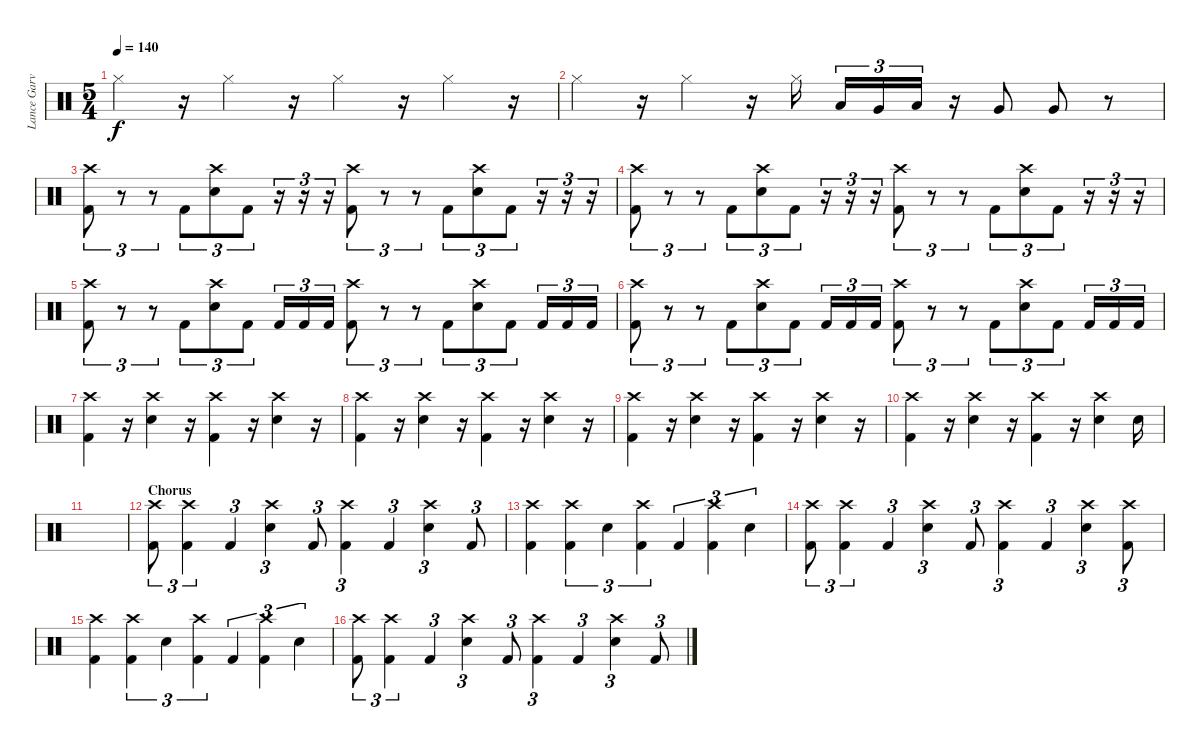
\track ("Lance Garvin - Drums" "Lance Garv") {instrument percussion}
\staff {score}
\articulation defaults
\ts (5 4)
\tempo 140
\clef neutral
\ks c "Hi-Hat (closed)".4{dy f}
r.16 "Hi-Hat (closed)".4 r.16 "Hi-Hat (closed)".4 r.16 "Hi-Hat (closed)".4 r.16 |
"Hi-Hat (closed)".4 r.16 "Hi-Hat (closed)".4 r.16 "Hi-Hat (closed)".16 "Low Floor Tom (hit)".16{tu (3 2)} "Very Low Tom (hit)".16{tu (3 2)} "Low Tom (hit)".16{tu (3 2)} r.16 "Very Low Tom (hit)".8 "Very Low Tom (hit)".8 r.8 |
("Crash high (hit)" "Kick (hit) 2").8{tu (3 2)} r.8{tu (3 2)} r.8{tu (3 2)} "Kick (hit) 2".8{tu (3 2)} ("Crash high (hit)" "Electric Snare (hit)").8{tu (3 2)} "Kick (hit) 2".8{tu (3 2)} r.16{tu (3 2)} r.16{tu (3 2)} r.16{tu (3 2)} ("Crash high (hit)" "Kick (hit) 2").8{tu (3 2)} r.8{tu (3 2)} r.8{tu (3 2)} "Kick (hit) 2".8{tu (3 2)} ("Crash high (hit)" "Electric Snare (hit)").8{tu (3 2)} "Kick (hit) 2".8{tu (3 2)} r.16{tu (3 2)} r.16{tu (3 2)} r.16{tu (3 2)} |
("Crash high (hit)" "Kick (hit) 2").8{tu (3 2)} r.8{tu (3 2)} r.8{tu (3 2)} "Kick (hit) 2".8{tu (3 2)} ("Crash high (hit)" "Electric Snare (hit)").8{tu (3 2)} "Kick (hit) 2".8{tu (3 2)} r.16{tu (3 2)} r.16{tu (3 2)} r.16{tu (3 2)} ("Crash high (hit)" "Kick (hit) 2").8{tu (3 2)} r.8{tu (3 2)} r.8{tu (3 2)} "Kick (hit) 2".8{tu (3 2)} ("Crash high (hit)" "Electric Snare (hit)").8{tu (3 2)} "Kick (hit) 2".8{tu (3 2)} r.16{tu (3 2)} r.16{tu (3 2)} r.16{tu (3 2)} |
("Crash high (hit)" "Kick (hit) 2").8{tu (3 2)} r.8{tu (3 2)} r.8{tu (3 2)} "Kick (hit) 2".8{tu (3 2)} ("Crash high (hit)" "Electric Snare (hit)").8{tu (3 2)} "Kick (hit) 2".8{tu (3 2)} "Kick (hit) 2".16{tu (3 2)} "Kick (hit) 2".16{tu (3 2)} "Kick (hit) 2".16{tu (3 2)} ("Crash high (hit)" "Kick (hit) 2").8{tu (3 2)} r.8{tu (3 2)} r.8{tu (3 2)} "Kick (hit) 2".8{tu (3 2)} ("Crash high (hit)" "Electric Snare (hit)").8{tu (3 2)} "Kick (hit) 2".8{tu (3 2)} "Kick (hit) 2".16{tu (3 2)} "Kick (hit) 2".16{tu (3 2)} "Kick (hit) 2".16{tu (3 2)} |
("Crash high (hit)" "Kick (hit) 2").8{tu (3 2)} r.8{tu (3 2)} r.8{tu (3 2)} "Kick (hit) 2".8{tu (3 2)} ("Crash high (hit)" "Electric Snare (hit)").8{tu (3 2)} "Kick (hit) 2".8{tu (3 2)} "Kick (hit) 2".16{tu (3 2)} "Kick (hit) 2".16{tu (3 2)} "Kick (hit) 2".16{tu (3 2)} ("Crash high (hit)" "Kick (hit) 2").8{tu (3 2)} r.8{tu (3 2)} r.8{tu (3 2)} "Kick (hit) 2".8{tu (3 2)} ("Crash high (hit)" "Electric Snare (hit)").8{tu (3 2)} "Kick (hit) 2".8{tu (3 2)} "Kick (hit) 2".16{tu (3 2)} "Kick (hit) 2".16{tu (3 2)} "Kick (hit) 2".16{tu (3 2)} |
("Crash high (hit)" "Kick (hit) 2").4 r.16 ("Crash high (hit)" "Electric Snare (hit)").4 r.16 ("Crash high (hit)" "Kick (hit) 2").4 r.16 ("Crash high (hit)" "Electric Snare (hit)").4 r.16 |
("Crash high (hit)" "Kick (hit) 2").4 r.16 ("Crash high (hit)" "Electric Snare (hit)").4 r.16 ("Crash high (hit)" "Kick (hit) 2").4 r.16 ("Crash high (hit)" "Electric Snare (hit)").4 r.16 |
("Crash high (hit)" "Kick (hit) 2").4 r.16 ("Crash high (hit)" "Electric Snare (hit)").4 r.16 ("Crash high (hit)" "Kick (hit) 2").4 r.16 ("Crash high (hit)" "Electric Snare (hit)").4 r.16 |
("Crash high (hit)" "Kick (hit) 2").4 r.16 ("Crash high (hit)" "Electric Snare (hit)").4 r.16 ("Crash high (hit)" "Kick (hit) 2").4 r.16 ("Crash high (hit)" "Electric Snare (hit)").4 "Electric Snare (hit)".16 |
|
\section ("" "Chorus")
("Crash high (hit)" "Kick (hit) 2").8{tu (3 2)} ("Crash high (hit)" "Kick (hit) 2").4{tu (3 2)} "Kick (hit) 2".4{tu (3 2)} ("Crash high (hit)" "Electric Snare (hit)").4{tu (3 2)} "Kick (hit) 2".8{tu (3 2)} ("Crash high (hit)" "Kick (hit) 2").4{tu (3 2)} "Kick (hit) 2".4{tu (3 2)} ("Crash high (hit)" "Electric Snare (hit)").4{tu (3 2)} "Kick (hit) 2".8{tu (3 2)} |
("Crash high (hit)" "Kick (hit) 2").4 ("Crash high (hit)" "Kick (hit) 2").4{tu (3 2)} "Electric Snare (hit)".4{tu (3 2)} ("Crash high (hit)" "Kick (hit) 2").4{tu (3 2)} "Kick (hit) 2".4{tu (3 2)} ("Crash high (hit)" "Kick (hit) 2").4{tu (3 2)} "Electric Snare (hit)".4{tu (3 2)} |
("Crash high (hit)" "Kick (hit) 2").8{tu (3 2)} ("Crash high (hit)" "Kick (hit) 2").4{tu (3 2)} "Kick (hit) 2".4{tu (3 2)} ("Crash high (hit)" "Electric Snare (hit)").4{tu (3 2)} "Kick (hit) 2".8{tu (3 2)} ("Crash high (hit)" "Kick (hit) 2").4{tu (3 2)} "Kick (hit) 2".4{tu (3 2)} ("Crash high (hit)" "Electric Snare (hit)").4{tu (3 2)} ("Crash high (hit)" "Kick (hit) 2").8{tu (3 2)} |
("Crash high (hit)" "Kick (hit) 2").4 ("Crash high (hit)" "Kick (hit) 2").4{tu (3 2)} "Electric Snare (hit)".4{tu (3 2)} ("Crash high (hit)" "Kick (hit) 2").4{tu (3 2)} "Kick (hit) 2".4{tu (3 2)} ("Crash high (hit)" "Kick (hit) 2").4{tu (3 2)} "Electric Snare (hit)".4{tu (3 2)} |
("Crash high (hit)" "Kick (hit) 2").8{tu (3 2)} ("Crash high (hit)" "Kick (hit) 2").4{tu (3 2)} "Kick (hit) 2".4{tu (3 2)} ("Crash high (hit)" "Electric Snare (hit)").4{tu (3 2)} "Kick (hit) 2".8{tu (3 2)} ("Crash high (hit)" "Kick (hit) 2").4{tu (3 2)} "Kick (hit) 2".4{tu (3 2)} ("Crash high (hit)" "Electric Snare (hit)").4{tu (3 2)} "Kick (hit) 2".8{tu (3 2)}
